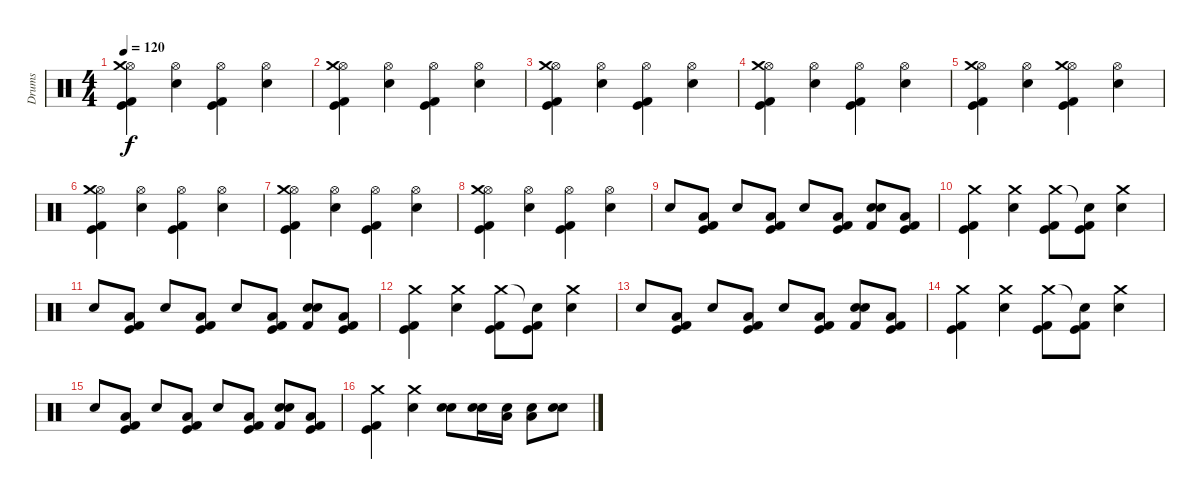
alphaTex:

\track ("Drums" "Drums") {instrument percussion}
\staff {score}
\articulation defaults
\ts (4 4)
\tempo 120
\clef neutral
\ks c
("Hi-Hat (open)" "Crash medium (hit)" "Kick (hit)" "Kick (hit) 2").4{dy f} ("Hi-Hat (open)" "Electric Snare (hit)").4 ("Hi-Hat (open)" "Kick (hit)" "Kick (hit) 2").4 ("Hi-Hat (open)" "Electric Snare (hit)").4 |
("Hi-Hat (open)" "Crash medium (hit)" "Kick (hit)" "Kick (hit) 2").4 ("Hi-Hat (open)" "Electric Snare (hit)").4 ("Hi-Hat (open)" "Kick (hit)" "Kick (hit) 2").4 ("Hi-Hat (open)" "Electric Snare (hit)").4 |
("Hi-Hat (open)" "Crash medium (hit)" "Kick (hit)" "Kick (hit) 2").4 ("Hi-Hat (open)" "Electric Snare (hit)").4 ("Hi-Hat (open)" "Kick (hit)" "Kick (hit) 2").4 ("Hi-Hat (open)" "Electric Snare (hit)").4 |
("Hi-Hat (open)" "Crash medium (hit)" "Kick (hit)" "Kick (hit) 2").4 ("Hi-Hat (open)" "Electric Snare (hit)").4 ("Hi-Hat (open)" "Kick (hit)" "Kick (hit) 2").4 ("Hi-Hat (open)" "Electric Snare (hit)").4 |
("Hi-Hat (open)" "Crash medium (hit)" "Kick (hit)" "Kick (hit) 2").4 ("Hi-Hat (open)" "Electric Snare (hit)").4 ("Hi-Hat (open)" "Crash medium (hit)" "Kick (hit)" "Kick (hit) 2").4 ("Hi-Hat (open)" "Electric Snare (hit)").4 |
("Hi-Hat (open)" "Crash medium (hit)" "Kick (hit)" "Kick (hit) 2").4 ("Hi-Hat (open)" "Electric Snare (hit)").4 ("Hi-Hat (open)" "Kick (hit)" "Kick (hit) 2").4 ("Hi-Hat (open)" "Electric Snare (hit)").4 |
("Hi-Hat (open)" "Crash medium (hit)" "Kick (hit)" "Kick (hit) 2").4 ("Hi-Hat (open)" "Electric Snare (hit)").4 ("Hi-Hat (open)" "Kick (hit)" "Kick (hit) 2").4 ("Hi-Hat (open)" "Electric Snare (hit)").4 |
("Hi-Hat (open)" "Crash medium (hit)" "Kick (hit)" "Kick (hit) 2").4 ("Hi-Hat (open)" "Electric Snare (hit)").4 ("Hi-Hat (open)" "Kick (hit)" "Kick (hit) 2").4 ("Hi-Hat (open)" "Electric Snare (hit)").4 |
"Snare (hit) 2".8 ("Low Floor Tom (hit)" "Kick (hit)" "Kick (hit) 2").8 "Snare (hit) 2".8 ("Low Floor Tom (hit)" "Kick (hit)" "Kick (hit) 2").8 "Snare (hit) 2".8 ("Low Floor Tom (hit)" "Kick (hit)" "Kick (hit) 2").8 ("Electric Snare (hit)" "Snare (hit) 2" "Kick (hit) 2").8 ("Low Floor Tom (hit)" "Kick (hit)" "Kick (hit) 2").8 |
("Crash medium (hit)" "Kick (hit)" "Kick (hit) 2").4 ("Crash medium (hit)" "Snare (hit) 2").4 ("Crash medium (hit)" "Kick (hit)" "Kick (hit) 2").8 ("Snare (hit)"{t} "Kick (hit)" "Kick (hit) 2").8 ("Crash medium (hit)" "Snare (hit) 2").4 |
"Snare (hit) 2".8 ("Low Floor Tom (hit)" "Kick (hit)" "Kick (hit) 2").8 "Snare (hit) 2".8 ("Low Floor Tom (hit)" "Kick (hit)" "Kick (hit) 2").8 "Snare (hit) 2".8 ("Low Floor Tom (hit)" "Kick (hit)" "Kick (hit) 2").8 ("Electric Snare (hit)" "Snare (hit) 2" "Kick (hit) 2").8 ("Low Floor Tom (hit)" "Kick (hit)" "Kick (hit) 2").8 |
("Crash medium (hit)" "Kick (hit)" "Kick (hit) 2").4 ("Crash medium (hit)" "Snare (hit) 2").4 ("Crash medium (hit)" "Kick (hit)" "Kick (hit) 2").8 ("Snare (hit)"{t} "Kick (hit)" "Kick (hit) 2").8 ("Crash medium (hit)" "Snare (hit) 2").4 |
"Snare (hit) 2".8 ("Low Floor Tom (hit)" "Kick (hit)" "Kick (hit) 2").8 "Snare (hit) 2".8 ("Low Floor Tom (hit)" "Kick (hit)" "Kick (hit) 2").8 "Snare (hit) 2".8 ("Low Floor Tom (hit)" "Kick (hit)" "Kick (hit) 2").8 ("Electric Snare (hit)" "Snare (hit) 2" "Kick (hit) 2").8 ("Low Floor Tom (hit)" "Kick (hit)" "Kick (hit) 2").8 |
("Crash medium (hit)" "Kick (hit)" "Kick (hit) 2").4 ("Crash medium (hit)" "Snare (hit) 2").4 ("Crash medium (hit)" "Kick (hit)" "Kick (hit) 2").8 ("Snare (hit)"{t} "Kick (hit)" "Kick (hit) 2").8 ("Crash medium (hit)" "Snare (hit) 2").4 |
"Snare (hit) 2".8 ("Low Floor Tom (hit)" "Kick (hit)" "Kick (hit) 2").8 "Snare (hit) 2".8 ("Low Floor Tom (hit)" "Kick (hit)" "Kick (hit) 2").8 "Snare (hit) 2".8 ("Low Floor Tom (hit)" "Kick (hit)" "Kick (hit) 2").8 ("Electric Snare (hit)" "Snare (hit) 2" "Kick (hit) 2").8 ("Low Floor Tom (hit)" "Kick (hit)" "Kick (hit) 2").8 |
("Crash medium (hit)" "Kick (hit)" "Kick (hit) 2").4 ("Crash medium (hit)" "Snare (hit) 2").4 ("Electric Snare (hit)" "Snare (hit) 2").8 ("Electric Snare (hit)" "Snare (hit) 2").16 ("Low Floor Tom (hit)" "Snare (hit) 2").16 ("Low Floor Tom (hit)" "Snare (hit) 2").8 ("Electric Snare (hit)" "Snare (hit) 2").8
